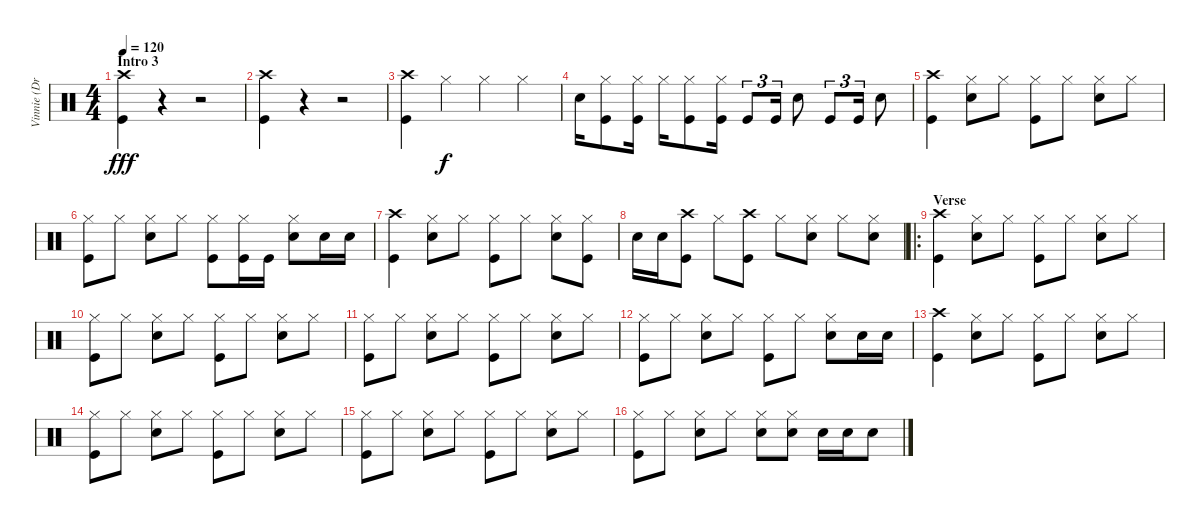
\track ("Vinnie (Drums)" "Vinnie (Dr") {instrument percussion}
\staff {score}
\articulation defaults
\ts (4 4)
\section ("" "Intro 3")
\tempo 120
\clef neutral
\ks c
("Crash high (hit)" "Kick (hit)").4{dy fff} r.4 r.2 |
("Crash high (hit)" "Kick (hit)").4 r.4 r.2 |
("Crash high (hit)" "Kick (hit)").4 "Hi-Hat (closed)".4{dy f} "Hi-Hat (closed)".4 "Hi-Hat (closed)".4 |
"Snare (hit) 2".16 ("Hi-Hat (closed)" "Kick (hit)").8 ("Hi-Hat (closed)" "Kick (hit)").16 "Hi-Hat (closed)".16 ("Hi-Hat (closed)" "Kick (hit)").8 ("Hi-Hat (closed)" "Kick (hit)").16 "Kick (hit)".8{tu (3 2)} "Kick (hit)".16{tu (3 2)} "Snare (hit) 2".8 "Kick (hit)".8{tu (3 2)} "Kick (hit)".16{tu (3 2)} "Snare (hit) 2".8 |
("Crash high (hit)" "Kick (hit)").4 ("Hi-Hat (closed)" "Snare (hit) 2").8 "Hi-Hat (closed)".8 ("Hi-Hat (closed)" "Kick (hit)").8 "Hi-Hat (closed)".8 ("Hi-Hat (closed)" "Snare (hit) 2").8 "Hi-Hat (closed)".8 |
("Hi-Hat (closed)" "Kick (hit)").8 "Hi-Hat (closed)".8 ("Hi-Hat (closed)" "Snare (hit) 2").8 "Hi-Hat (closed)".8 ("Hi-Hat (closed)" "Kick (hit)").8 ("Hi-Hat (closed)" "Kick (hit)").16 "Kick (hit)".16 ("Hi-Hat (closed)" "Snare (hit) 2").8 "Snare (hit) 2".16 "Snare (hit) 2".16 |
("Crash high (hit)" "Kick (hit)").4 ("Hi-Hat (closed)" "Snare (hit) 2").8 "Hi-Hat (closed)".8 ("Hi-Hat (closed)" "Kick (hit)").8 "Hi-Hat (closed)".8 ("Hi-Hat (closed)" "Snare (hit) 2").8 ("Hi-Hat (closed)" "Kick (hit)").8 |
"Snare (hit) 2".16 "Snare (hit) 2".16 ("Crash high (hit)" "Kick (hit)").8 "Hi-Hat (closed)".8 ("Crash high (hit)" "Kick (hit)").8 "Hi-Hat (closed)".8 ("Hi-Hat (closed)" "Snare (hit) 2").8 "Hi-Hat (closed)".8 ("Hi-Hat (closed)" "Snare (hit) 2").8 |
\ro
\section ("" "Verse")
("Crash high (hit)" "Kick (hit)").4 ("Hi-Hat (closed)" "Snare (hit) 2").8 "Hi-Hat (closed)".8 ("Hi-Hat (closed)" "Kick (hit)").8 "Hi-Hat (closed)".8 ("Hi-Hat (closed)" "Snare (hit) 2").8 "Hi-Hat (closed)".8 |
("Hi-Hat (closed)" "Kick (hit)").8 "Hi-Hat (closed)".8 ("Hi-Hat (closed)" "Snare (hit) 2").8 "Hi-Hat (closed)".8 ("Hi-Hat (closed)" "Kick (hit)").8 "Hi-Hat (closed)".8 ("Hi-Hat (closed)" "Snare (hit) 2").8 "Hi-Hat (closed)".8 |
("Hi-Hat (closed)" "Kick (hit)").8 "Hi-Hat (closed)".8 ("Hi-Hat (closed)" "Snare (hit) 2").8 "Hi-Hat (closed)".8 ("Hi-Hat (closed)" "Kick (hit)").8 "Hi-Hat (closed)".8 ("Hi-Hat (closed)" "Snare (hit) 2").8 "Hi-Hat (closed)".8 |
("Hi-Hat (closed)" "Kick (hit)").8 "Hi-Hat (closed)".8 ("Hi-Hat (closed)" "Snare (hit) 2").8 "Hi-Hat (closed)".8 ("Hi-Hat (closed)" "Kick (hit)").8 "Hi-Hat (closed)".8 ("Hi-Hat (closed)" "Snare (hit) 2").8 "Snare (hit) 2".16 "Snare (hit) 2".16 |
("Crash high (hit)" "Kick (hit)").4 ("Hi-Hat (closed)" "Snare (hit) 2").8 "Hi-Hat (closed)".8 ("Hi-Hat (closed)" "Kick (hit)").8 "Hi-Hat (closed)".8 ("Hi-Hat (closed)" "Snare (hit) 2").8 "Hi-Hat (closed)".8 |
("Hi-Hat (closed)" "Kick (hit)").8 "Hi-Hat (closed)".8 ("Hi-Hat (closed)" "Snare (hit) 2").8 "Hi-Hat (closed)".8 ("Hi-Hat (closed)" "Kick (hit)").8 "Hi-Hat (closed)".8 ("Hi-Hat (closed)" "Snare (hit) 2").8 "Hi-Hat (closed)".8 |
("Hi-Hat (closed)" "Kick (hit)").8 "Hi-Hat (closed)".8 ("Hi-Hat (closed)" "Snare (hit) 2").8 "Hi-Hat (closed)".8 ("Hi-Hat (closed)" "Kick (hit)").8 "Hi-Hat (closed)".8 ("Hi-Hat (closed)" "Snare (hit) 2").8 "Hi-Hat (closed)".8 |
("Hi-Hat (closed)" "Kick (hit)").8 "Hi-Hat (closed)".8 ("Hi-Hat (closed)" "Snare (hit) 2").8 "Hi-Hat (closed)".8 ("Hi-Hat (closed)" "Snare (hit) 2").8 ("Hi-Hat (closed)" "Snare (hit) 2").8 "Snare (hit) 2".16 "Snare (hit) 2".16 "Snare (hit) 2".8
